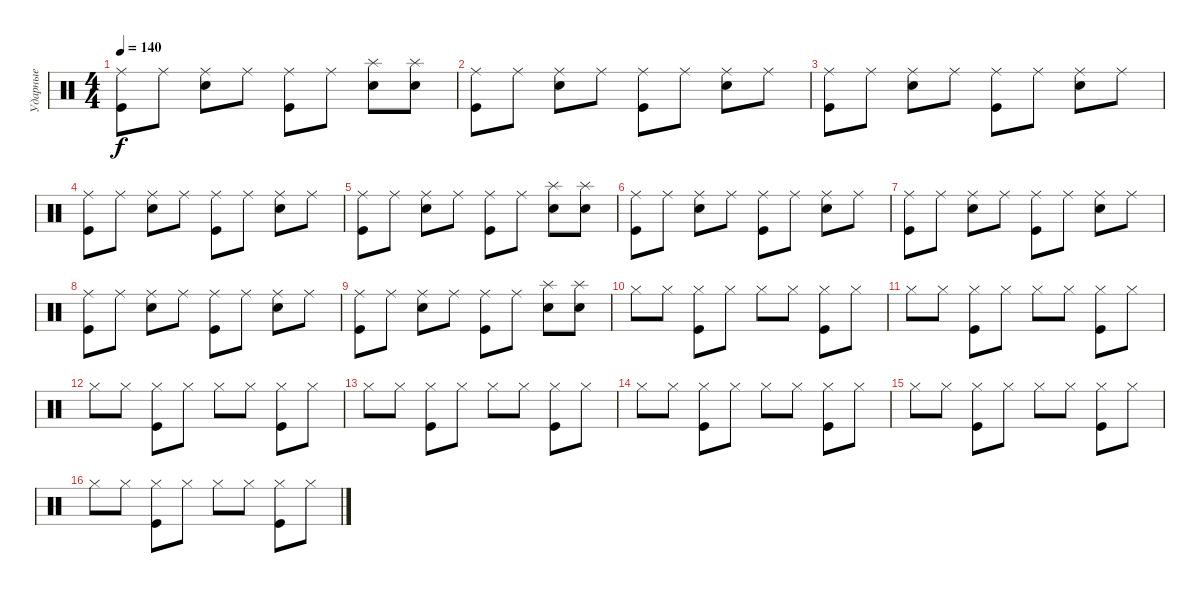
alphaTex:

\track ("Ударные" "Ударные") {instrument percussion}
\staff {score}
\articulation defaults
\ts (4 4)
\tempo 140
\clef neutral
\ks c
("Ride (middle)" "Kick (hit)").8{dy f} "Ride (middle)".8 ("Ride (middle)" "Snare (hit) 2").8 "Ride (middle)".8 ("Ride (middle)" "Kick (hit)").8 "Ride (middle)".8 ("Splash (hit)" "Snare (hit) 2").8 ("Splash (hit)" "Snare (hit) 2").8 |
("Ride (middle)" "Kick (hit)").8 "Ride (middle)".8 ("Ride (middle)" "Snare (hit) 2").8 "Ride (middle)".8 ("Ride (middle)" "Kick (hit)").8 "Ride (middle)".8 ("Ride (middle)" "Snare (hit) 2").8 "Ride (middle)".8 |
("Ride (middle)" "Kick (hit)").8 "Ride (middle)".8 ("Ride (middle)" "Snare (hit) 2").8 "Ride (middle)".8 ("Ride (middle)" "Kick (hit)").8 "Ride (middle)".8 ("Ride (middle)" "Snare (hit) 2").8 "Ride (middle)".8 |
("Ride (middle)" "Kick (hit)").8 "Ride (middle)".8 ("Ride (middle)" "Snare (hit) 2").8 "Ride (middle)".8 ("Ride (middle)" "Kick (hit)").8 "Ride (middle)".8 ("Ride (middle)" "Snare (hit) 2").8 "Ride (middle)".8 |
("Ride (middle)" "Kick (hit)").8 "Ride (middle)".8 ("Ride (middle)" "Snare (hit) 2").8 "Ride (middle)".8 ("Ride (middle)" "Kick (hit)").8 "Ride (middle)".8 ("Splash (hit)" "Snare (hit) 2").8 ("Splash (hit)" "Snare (hit) 2").8 |
("Ride (middle)" "Kick (hit)").8 "Ride (middle)".8 ("Ride (middle)" "Snare (hit) 2").8 "Ride (middle)".8 ("Ride (middle)" "Kick (hit)").8 "Ride (middle)".8 ("Ride (middle)" "Snare (hit) 2").8 "Ride (middle)".8 |
("Ride (middle)" "Kick (hit)").8 "Ride (middle)".8 ("Ride (middle)" "Snare (hit) 2").8 "Ride (middle)".8 ("Ride (middle)" "Kick (hit)").8 "Ride (middle)".8 ("Ride (middle)" "Snare (hit) 2").8 "Ride (middle)".8 |
("Ride (middle)" "Kick (hit)").8 "Ride (middle)".8 ("Ride (middle)" "Snare (hit) 2").8 "Ride (middle)".8 ("Ride (middle)" "Kick (hit)").8 "Ride (middle)".8 ("Ride (middle)" "Snare (hit) 2").8 "Ride (middle)".8 |
("Ride (middle)" "Kick (hit)").8 "Ride (middle)".8 ("Ride (middle)" "Snare (hit) 2").8 "Ride (middle)".8 ("Ride (middle)" "Kick (hit)").8 "Ride (middle)".8 ("Splash (hit)" "Snare (hit) 2").8 ("Splash (hit)" "Snare (hit) 2").8 |
"Hi-Hat (closed)".8 "Hi-Hat (closed)".8 ("Hi-Hat (closed)" "Kick (hit)").8 "Hi-Hat (closed)".8 "Hi-Hat (closed)".8 "Hi-Hat (closed)".8 ("Hi-Hat (closed)" "Kick (hit)").8 "Hi-Hat (closed)".8 |
"Hi-Hat (closed)".8 "Hi-Hat (closed)".8 ("Hi-Hat (closed)" "Kick (hit)").8 "Hi-Hat (closed)".8 "Hi-Hat (closed)".8 "Hi-Hat (closed)".8 ("Hi-Hat (closed)" "Kick (hit)").8 "Hi-Hat (closed)".8 |
"Hi-Hat (closed)".8 "Hi-Hat (closed)".8 ("Hi-Hat (closed)" "Kick (hit)").8 "Hi-Hat (closed)".8 "Hi-Hat (closed)".8 "Hi-Hat (closed)".8 ("Hi-Hat (closed)" "Kick (hit)").8 "Hi-Hat (closed)".8 |
"Hi-Hat (closed)".8 "Hi-Hat (closed)".8 ("Hi-Hat (closed)" "Kick (hit)").8 "Hi-Hat (closed)".8 "Hi-Hat (closed)".8 "Hi-Hat (closed)".8 ("Hi-Hat (closed)" "Kick (hit)").8 "Hi-Hat (closed)".8 |
"Hi-Hat (closed)".8 "Hi-Hat (closed)".8 ("Hi-Hat (closed)" "Kick (hit)").8 "Hi-Hat (closed)".8 "Hi-Hat (closed)".8 "Hi-Hat (closed)".8 ("Hi-Hat (closed)" "Kick (hit)").8 "Hi-Hat (closed)".8 |
"Hi-Hat (closed)".8 "Hi-Hat (closed)".8 ("Hi-Hat (closed)" "Kick (hit)").8 "Hi-Hat (closed)".8 "Hi-Hat (closed)".8 "Hi-Hat (closed)".8 ("Hi-Hat (closed)" "Kick (hit)").8 "Hi-Hat (closed)".8 |
"Hi-Hat (closed)".8 "Hi-Hat (closed)".8 ("Hi-Hat (closed)" "Kick (hit)").8 "Hi-Hat (closed)".8 "Hi-Hat (closed)".8 "Hi-Hat (closed)".8 ("Hi-Hat (closed)" "Kick (hit)").8 "Hi-Hat (closed)".8
